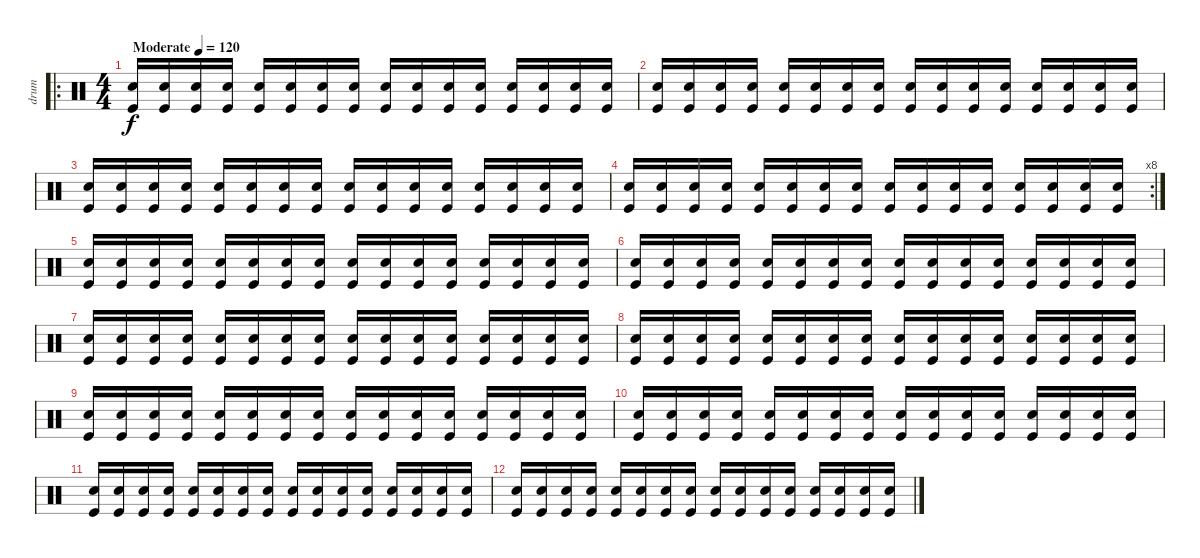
\track ("drum" "drum") {instrument percussion}
\staff {score}
\articulation defaults
\ro
\ts (4 4)
\tempo (120 "Moderate")
\clef neutral
\ks c
("Snare (hit) 2" "Kick (hit)").16{dy f} ("Snare (hit) 2" "Kick (hit)").16 ("Snare (hit) 2" "Kick (hit)").16 ("Snare (hit) 2" "Kick (hit)").16 ("Snare (hit) 2" "Kick (hit)").16 ("Snare (hit) 2" "Kick (hit)").16 ("Snare (hit) 2" "Kick (hit)").16 ("Snare (hit) 2" "Kick (hit)").16 ("Snare (hit) 2" "Kick (hit)").16 ("Snare (hit) 2" "Kick (hit)").16 ("Snare (hit) 2" "Kick (hit)").16 ("Snare (hit) 2" "Kick (hit)").16 ("Snare (hit) 2" "Kick (hit)").16 ("Snare (hit) 2" "Kick (hit)").16 ("Snare (hit) 2" "Kick (hit)").16 ("Snare (hit) 2" "Kick (hit)").16 |
("Snare (hit) 2" "Kick (hit)").16 ("Snare (hit) 2" "Kick (hit)").16 ("Snare (hit) 2" "Kick (hit)").16 ("Snare (hit) 2" "Kick (hit)").16 ("Snare (hit) 2" "Kick (hit)").16 ("Snare (hit) 2" "Kick (hit)").16 ("Snare (hit) 2" "Kick (hit)").16 ("Snare (hit) 2" "Kick (hit)").16 ("Snare (hit) 2" "Kick (hit)").16 ("Snare (hit) 2" "Kick (hit)").16 ("Snare (hit) 2" "Kick (hit)").16 ("Snare (hit) 2" "Kick (hit)").16 ("Snare (hit) 2" "Kick (hit)").16 ("Snare (hit) 2" "Kick (hit)").16 ("Snare (hit) 2" "Kick (hit)").16 ("Snare (hit) 2" "Kick (hit)").16 |
("Snare (hit) 2" "Kick (hit)").16 ("Snare (hit) 2" "Kick (hit)").16 ("Snare (hit) 2" "Kick (hit)").16 ("Snare (hit) 2" "Kick (hit)").16 ("Snare (hit) 2" "Kick (hit)").16 ("Snare (hit) 2" "Kick (hit)").16 ("Snare (hit) 2" "Kick (hit)").16 ("Snare (hit) 2" "Kick (hit)").16 ("Snare (hit) 2" "Kick (hit)").16 ("Snare (hit) 2" "Kick (hit)").16 ("Snare (hit) 2" "Kick (hit)").16 ("Snare (hit) 2" "Kick (hit)").16 ("Snare (hit) 2" "Kick (hit)").16 ("Snare (hit) 2" "Kick (hit)").16 ("Snare (hit) 2" "Kick (hit)").16 ("Snare (hit) 2" "Kick (hit)").16 |
\rc 8
("Snare (hit) 2" "Kick (hit)").16 ("Snare (hit) 2" "Kick (hit)").16 ("Snare (hit) 2" "Kick (hit)").16 ("Snare (hit) 2" "Kick (hit)").16 ("Snare (hit) 2" "Kick (hit)").16 ("Snare (hit) 2" "Kick (hit)").16 ("Snare (hit) 2" "Kick (hit)").16 ("Snare (hit) 2" "Kick (hit)").16 ("Snare (hit) 2" "Kick (hit)").16 ("Snare (hit) 2" "Kick (hit)").16 ("Snare (hit) 2" "Kick (hit)").16 ("Snare (hit) 2" "Kick (hit)").16 ("Snare (hit) 2" "Kick (hit)").16 ("Snare (hit) 2" "Kick (hit)").16 ("Snare (hit) 2" "Kick (hit)").16 ("Snare (hit) 2" "Kick (hit)").16 |
("Snare (hit) 2" "Kick (hit)").16 ("Snare (hit) 2" "Kick (hit)").16 ("Snare (hit) 2" "Kick (hit)").16 ("Snare (hit) 2" "Kick (hit)").16 ("Snare (hit) 2" "Kick (hit)").16 ("Snare (hit) 2" "Kick (hit)").16 ("Snare (hit) 2" "Kick (hit)").16 ("Snare (hit) 2" "Kick (hit)").16 ("Snare (hit) 2" "Kick (hit)").16 ("Snare (hit) 2" "Kick (hit)").16 ("Snare (hit) 2" "Kick (hit)").16 ("Snare (hit) 2" "Kick (hit)").16 ("Snare (hit) 2" "Kick (hit)").16 ("Snare (hit) 2" "Kick (hit)").16 ("Snare (hit) 2" "Kick (hit)").16 ("Snare (hit) 2" "Kick (hit)").16 |
("Snare (hit) 2" "Kick (hit)").16 ("Snare (hit) 2" "Kick (hit)").16 ("Snare (hit) 2" "Kick (hit)").16 ("Snare (hit) 2" "Kick (hit)").16 ("Snare (hit) 2" "Kick (hit)").16 ("Snare (hit) 2" "Kick (hit)").16 ("Snare (hit) 2" "Kick (hit)").16 ("Snare (hit) 2" "Kick (hit)").16 ("Snare (hit) 2" "Kick (hit)").16 ("Snare (hit) 2" "Kick (hit)").16 ("Snare (hit) 2" "Kick (hit)").16 ("Snare (hit) 2" "Kick (hit)").16 ("Snare (hit) 2" "Kick (hit)").16 ("Snare (hit) 2" "Kick (hit)").16 ("Snare (hit) 2" "Kick (hit)").16 ("Snare (hit) 2" "Kick (hit)").16 |
("Snare (hit) 2" "Kick (hit)").16 ("Snare (hit) 2" "Kick (hit)").16 ("Snare (hit) 2" "Kick (hit)").16 ("Snare (hit) 2" "Kick (hit)").16 ("Snare (hit) 2" "Kick (hit)").16 ("Snare (hit) 2" "Kick (hit)").16 ("Snare (hit) 2" "Kick (hit)").16 ("Snare (hit) 2" "Kick (hit)").16 ("Snare (hit) 2" "Kick (hit)").16 ("Snare (hit) 2" "Kick (hit)").16 ("Snare (hit) 2" "Kick (hit)").16 ("Snare (hit) 2" "Kick (hit)").16 ("Snare (hit) 2" "Kick (hit)").16 ("Snare (hit) 2" "Kick (hit)").16 ("Snare (hit) 2" "Kick (hit)").16 ("Snare (hit) 2" "Kick (hit)").16 |
("Snare (hit) 2" "Kick (hit)").16 ("Snare (hit) 2" "Kick (hit)").16 ("Snare (hit) 2" "Kick (hit)").16 ("Snare (hit) 2" "Kick (hit)").16 ("Snare (hit) 2" "Kick (hit)").16 ("Snare (hit) 2" "Kick (hit)").16 ("Snare (hit) 2" "Kick (hit)").16 ("Snare (hit) 2" "Kick (hit)").16 ("Snare (hit) 2" "Kick (hit)").16 ("Snare (hit) 2" "Kick (hit)").16 ("Snare (hit) 2" "Kick (hit)").16 ("Snare (hit) 2" "Kick (hit)").16 ("Snare (hit) 2" "Kick (hit)").16 ("Snare (hit) 2" "Kick (hit)").16 ("Snare (hit) 2" "Kick (hit)").16 ("Snare (hit) 2" "Kick (hit)").16 |
("Snare (hit) 2" "Kick (hit)").16 ("Snare (hit) 2" "Kick (hit)").16 ("Snare (hit) 2" "Kick (hit)").16 ("Snare (hit) 2" "Kick (hit)").16 ("Snare (hit) 2" "Kick (hit)").16 ("Snare (hit) 2" "Kick (hit)").16 ("Snare (hit) 2" "Kick (hit)").16 ("Snare (hit) 2" "Kick (hit)").16 ("Snare (hit) 2" "Kick (hit)").16 ("Snare (hit) 2" "Kick (hit)").16 ("Snare (hit) 2" "Kick (hit)").16 ("Snare (hit) 2" "Kick (hit)").16 ("Snare (hit) 2" "Kick (hit)").16 ("Snare (hit) 2" "Kick (hit)").16 ("Snare (hit) 2" "Kick (hit)").16 ("Snare (hit) 2" "Kick (hit)").16 |
("Snare (hit) 2" "Kick (hit)").16 ("Snare (hit) 2" "Kick (hit)").16 ("Snare (hit) 2" "Kick (hit)").16 ("Snare (hit) 2" "Kick (hit)").16 ("Snare (hit) 2" "Kick (hit)").16 ("Snare (hit) 2" "Kick (hit)").16 ("Snare (hit) 2" "Kick (hit)").16 ("Snare (hit) 2" "Kick (hit)").16 ("Snare (hit) 2" "Kick (hit)").16 ("Snare (hit) 2" "Kick (hit)").16 ("Snare (hit) 2" "Kick (hit)").16 ("Snare (hit) 2" "Kick (hit)").16 ("Snare (hit) 2" "Kick (hit)").16 ("Snare (hit) 2" "Kick (hit)").16 ("Snare (hit) 2" "Kick (hit)").16 ("Snare (hit) 2" "Kick (hit)").16 |
("Snare (hit) 2" "Kick (hit)").16 ("Snare (hit) 2" "Kick (hit)").16 ("Snare (hit) 2" "Kick (hit)").16 ("Snare (hit) 2" "Kick (hit)").16 ("Snare (hit) 2" "Kick (hit)").16 ("Snare (hit) 2" "Kick (hit)").16 ("Snare (hit) 2" "Kick (hit)").16 ("Snare (hit) 2" "Kick (hit)").16 ("Snare (hit) 2" "Kick (hit)").16 ("Snare (hit) 2" "Kick (hit)").16 ("Snare (hit) 2" "Kick (hit)").16 ("Snare (hit) 2" "Kick (hit)").16 ("Snare (hit) 2" "Kick (hit)").16 ("Snare (hit) 2" "Kick (hit)").16 ("Snare (hit) 2" "Kick (hit)").16 ("Snare (hit) 2" "Kick (hit)").16 |
("Snare (hit) 2" "Kick (hit)").16 ("Snare (hit) 2" "Kick (hit)").16 ("Snare (hit) 2" "Kick (hit)").16 ("Snare (hit) 2" "Kick (hit)").16 ("Snare (hit) 2" "Kick (hit)").16 ("Snare (hit) 2" "Kick (hit)").16 ("Snare (hit) 2" "Kick (hit)").16 ("Snare (hit) 2" "Kick (hit)").16 ("Snare (hit) 2" "Kick (hit)").16 ("Snare (hit) 2" "Kick (hit)").16 ("Snare (hit) 2" "Kick (hit)").16 ("Snare (hit) 2" "Kick (hit)").16 ("Snare (hit) 2" "Kick (hit)").16 ("Snare (hit) 2" "Kick (hit)").16 ("Snare (hit) 2" "Kick (hit)").16 ("Snare (hit) 2" "Kick (hit)").16
